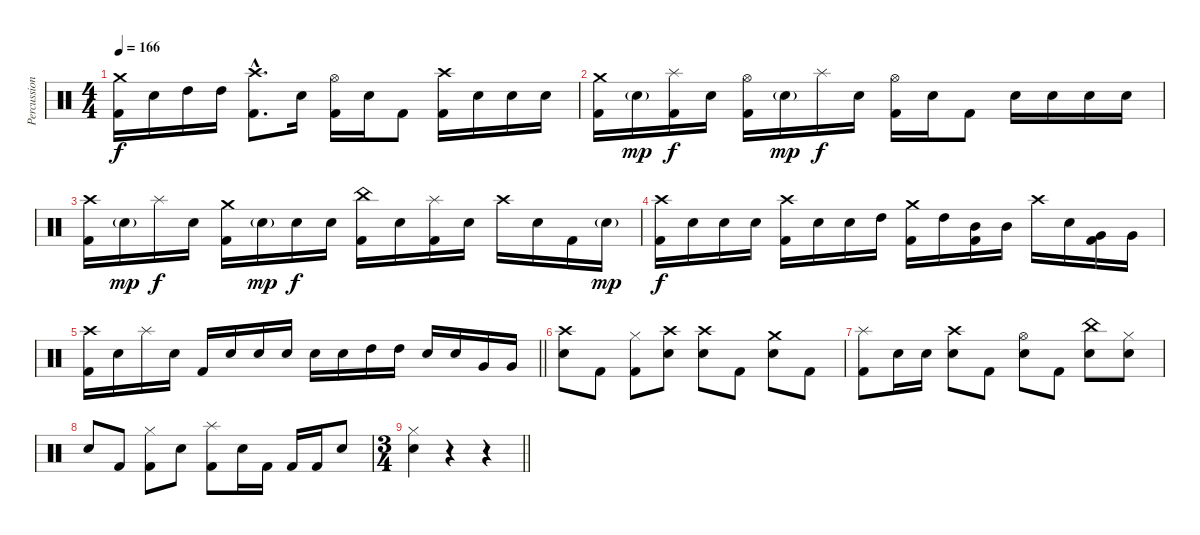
\track ("Percussion" "Percussion") {instrument percussion}
\staff {score}
\articulation defaults
\ts (4 4)
\tempo 166
\clef neutral
\ks c
("Crash medium (hit)" "Kick (hit) 2").16{dy f} "Electric Snare (hit)".16 "High Tom (hit)".16 "High Tom (hit)".16 ("Crash high (hit)"{hac} "Kick (hit) 2"{hac}).8{d} "Electric Snare (hit)".16 ("Hi-Hat (open)" "Kick (hit) 2").16 "Electric Snare (hit)".16 "Kick (hit) 2".8 ("Crash high (hit)" "Kick (hit) 2").16 "Electric Snare (hit)".16 "Electric Snare (hit)".16 "Electric Snare (hit)".16 |
("Crash medium (hit)" "Kick (hit) 2").16 "Electric Snare (hit)"{g}.16{dy mp} ("Splash (hit)" "Kick (hit) 2").16{dy f} "Electric Snare (hit)".16 ("Hi-Hat (open)" "Kick (hit) 2").16 "Electric Snare (hit)"{g}.16{dy mp} "Splash (hit)".16{dy f} "Electric Snare (hit)".16 ("Hi-Hat (open)" "Kick (hit) 2").16 "Electric Snare (hit)".16 "Kick (hit) 2".8 "Electric Snare (hit)".16 "Electric Snare (hit)".16 "Electric Snare (hit)".16 "Electric Snare (hit)".16 |
("Crash high (hit)" "Kick (hit) 2").16 "Electric Snare (hit)"{g}.16{dy mp} "Splash (hit)".16{dy f} "Electric Snare (hit)".16 ("Crash medium (hit)" "Kick (hit) 2").16 "Electric Snare (hit)"{g}.16{dy mp} "Electric Snare (hit)".16{dy f} "Electric Snare (hit)".16 ("China (hit)" "Kick (hit) 2").16 "Electric Snare (hit)".16 ("Splash (hit)" "Kick (hit) 2").16 "Electric Snare (hit)".16 "Crash high (hit)".16 "Electric Snare (hit)".16 "Kick (hit) 2".16 "Electric Snare (hit)"{g}.16{dy mp} |
("Crash high (hit)" "Kick (hit) 2").16{dy f} "Electric Snare (hit)".16 "Electric Snare (hit)".16 "Electric Snare (hit)".16 ("Crash high (hit)" "Kick (hit) 2").16 "Electric Snare (hit)".16 "Electric Snare (hit)".16 "High Tom (hit)".16 ("Crash medium (hit)" "Kick (hit) 2").16 "High Tom (hit)".16 ("Mid Tom (hit)" "Kick (hit) 2").16 "Mid Tom (hit)".16 "Crash high (hit)".16 "Electric Snare (hit)".16 ("Very Low Tom (hit)" "Kick (hit) 2").16 "Very Low Tom (hit)".16 |
\barLineRight lightlight
("Crash high (hit)" "Kick (hit) 2").16 "Electric Snare (hit)".16 "Splash (hit)".16 "Electric Snare (hit)".16 "Kick (hit) 2".16 "Electric Snare (hit)".16 "Electric Snare (hit)".16 "Electric Snare (hit)".16 "Electric Snare (hit)".16 "Electric Snare (hit)".16 "High Tom (hit)".16 "High Tom (hit)".16 "Electric Snare (hit)".16 "Electric Snare (hit)".16 "Very Low Tom (hit)".16 "Very Low Tom (hit)".16 |
("Crash high (hit)" "Electric Snare (hit)").8 "Kick (hit) 2".8 ("Hi-Hat (closed)" "Kick (hit) 2").8 ("Crash high (hit)" "Electric Snare (hit)").8 ("Crash high (hit)" "Electric Snare (hit)").8 "Kick (hit) 2".8 ("Crash medium (hit)" "Electric Snare (hit)").8 "Kick (hit) 2".8 |
("Splash (hit)" "Kick (hit) 2").8 "Electric Snare (hit)".16 "Electric Snare (hit)".16 ("Crash high (hit)" "Electric Snare (hit)").8 "Kick (hit) 2".8 ("Hi-Hat (open)" "Electric Snare (hit)").8 "Kick (hit) 2".8 ("China (hit)" "Electric Snare (hit)").8 ("Hi-Hat (closed)" "Electric Snare (hit)").8 |
"Electric Snare (hit)".8 "Kick (hit) 2".8 ("Hi-Hat (closed)" "Kick (hit) 2").8 "Electric Snare (hit)".8 ("Splash (hit)" "Kick (hit) 2").8 "Electric Snare (hit)".16 "Kick (hit) 2".16 "Kick (hit) 2".16 "Kick (hit) 2".16 "Electric Snare (hit)".8 |
\ts (3 4)
\barLineRight lightlight
("Hi-Hat (closed)" "Electric Snare (hit)").4 r.4 r.4
